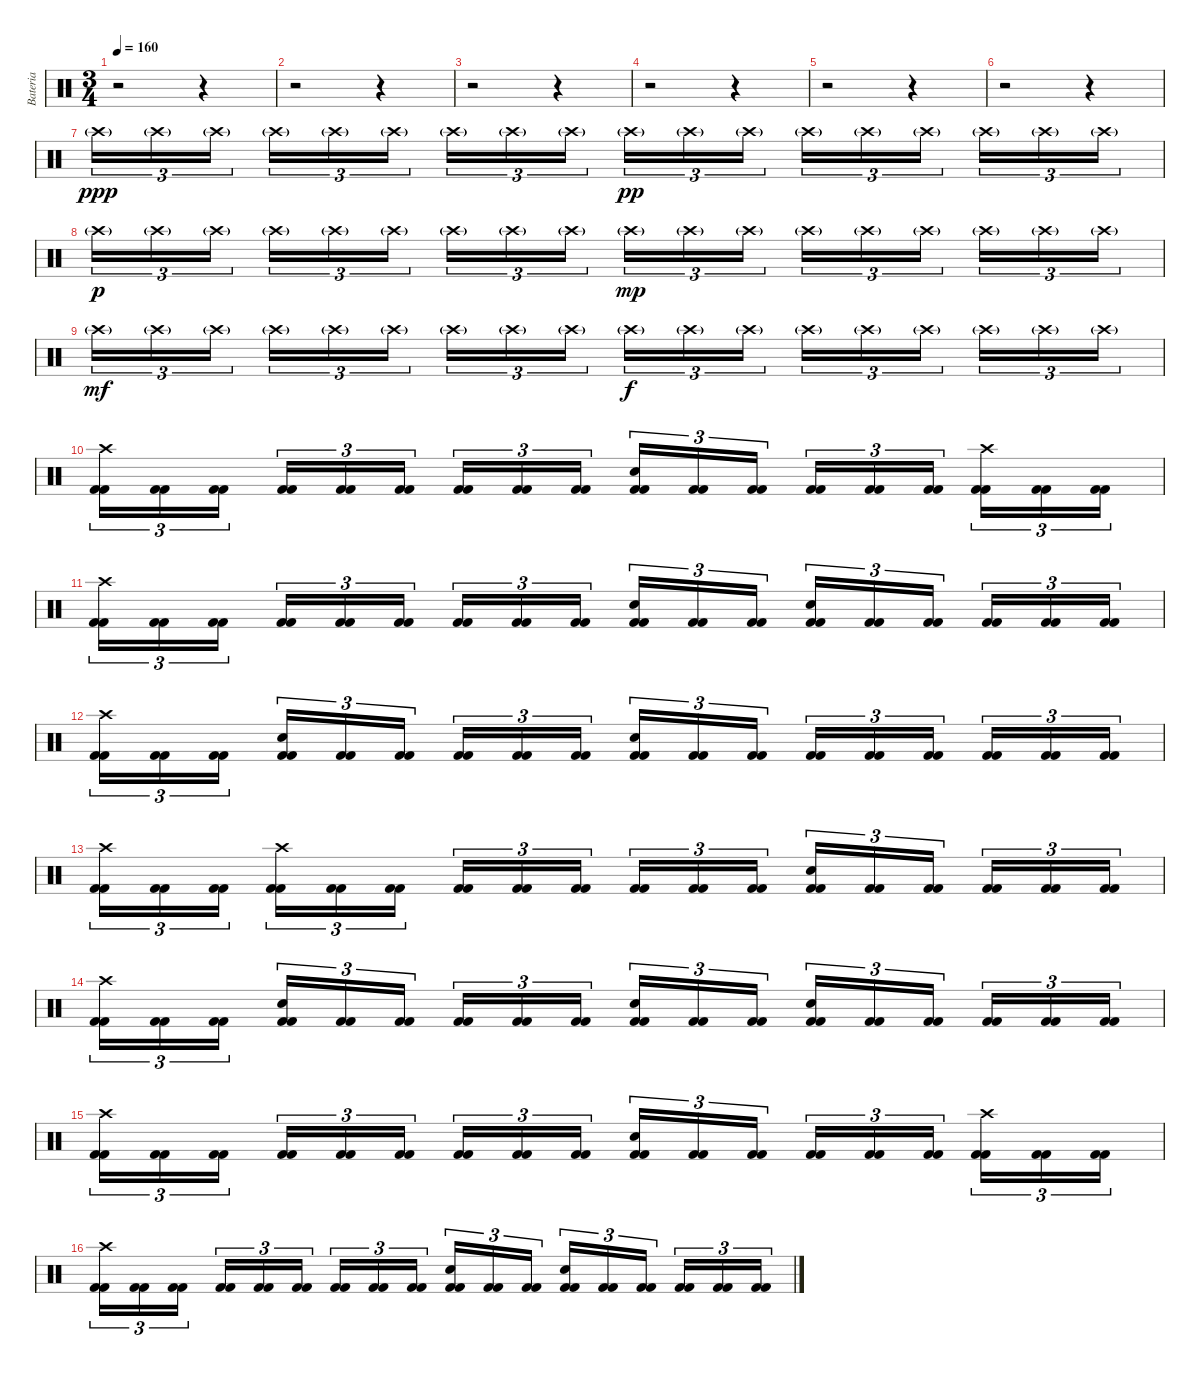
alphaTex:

\track ("Bateria" "Bateria") {instrument percussion}
\staff {score}
\articulation defaults
\ts (3 4)
\tempo 160
\clef neutral
\ks c
r.2{dy f} r.4 |
r.2 r.4 |
r.2 r.4 |
r.2 r.4 |
r.2 r.4 |
r.2 r.4 |
"Crash high (hit)"{g}.16{tu (3 2) dy ppp} "Crash high (hit)"{g}.16{tu (3 2)} "Crash high (hit)"{g}.16{tu (3 2)} "Crash high (hit)"{g}.16{tu (3 2)} "Crash high (hit)"{g}.16{tu (3 2)} "Crash high (hit)"{g}.16{tu (3 2)} "Crash high (hit)"{g}.16{tu (3 2)} "Crash high (hit)"{g}.16{tu (3 2)} "Crash high (hit)"{g}.16{tu (3 2)} "Crash high (hit)"{g}.16{tu (3 2) dy pp} "Crash high (hit)"{g}.16{tu (3 2)} "Crash high (hit)"{g}.16{tu (3 2)} "Crash high (hit)"{g}.16{tu (3 2)} "Crash high (hit)"{g}.16{tu (3 2)} "Crash high (hit)"{g}.16{tu (3 2)} "Crash high (hit)"{g}.16{tu (3 2)} "Crash high (hit)"{g}.16{tu (3 2)} "Crash high (hit)"{g}.16{tu (3 2)} |
"Crash high (hit)"{g}.16{tu (3 2) dy p} "Crash high (hit)"{g}.16{tu (3 2)} "Crash high (hit)"{g}.16{tu (3 2)} "Crash high (hit)"{g}.16{tu (3 2)} "Crash high (hit)"{g}.16{tu (3 2)} "Crash high (hit)"{g}.16{tu (3 2)} "Crash high (hit)"{g}.16{tu (3 2)} "Crash high (hit)"{g}.16{tu (3 2)} "Crash high (hit)"{g}.16{tu (3 2)} "Crash high (hit)"{g}.16{tu (3 2) dy mp} "Crash high (hit)"{g}.16{tu (3 2)} "Crash high (hit)"{g}.16{tu (3 2)} "Crash high (hit)"{g}.16{tu (3 2)} "Crash high (hit)"{g}.16{tu (3 2)} "Crash high (hit)"{g}.16{tu (3 2)} "Crash high (hit)"{g}.16{tu (3 2)} "Crash high (hit)"{g}.16{tu (3 2)} "Crash high (hit)"{g}.16{tu (3 2)} |
"Crash high (hit)"{g}.16{tu (3 2) dy mf} "Crash high (hit)"{g}.16{tu (3 2)} "Crash high (hit)"{g}.16{tu (3 2)} "Crash high (hit)"{g}.16{tu (3 2)} "Crash high (hit)"{g}.16{tu (3 2)} "Crash high (hit)"{g}.16{tu (3 2)} "Crash high (hit)"{g}.16{tu (3 2)} "Crash high (hit)"{g}.16{tu (3 2)} "Crash high (hit)"{g}.16{tu (3 2)} "Crash high (hit)"{g}.16{tu (3 2) dy f} "Crash high (hit)"{g}.16{tu (3 2)} "Crash high (hit)"{g}.16{tu (3 2)} "Crash high (hit)"{g}.16{tu (3 2)} "Crash high (hit)"{g}.16{tu (3 2)} "Crash high (hit)"{g}.16{tu (3 2)} "Crash high (hit)"{g}.16{tu (3 2)} "Crash high (hit)"{g}.16{tu (3 2)} "Crash high (hit)"{g}.16{tu (3 2)} |
("Kick (hit) 2" "Kick (hit) 2" "Crash high (hit)").16{tu (3 2)} ("Kick (hit) 2" "Kick (hit) 2").16{tu (3 2)} ("Kick (hit) 2" "Kick (hit) 2").16{tu (3 2)} ("Kick (hit) 2" "Kick (hit) 2").16{tu (3 2)} ("Kick (hit) 2" "Kick (hit) 2").16{tu (3 2)} ("Kick (hit) 2" "Kick (hit) 2").16{tu (3 2)} ("Kick (hit) 2" "Kick (hit) 2").16{tu (3 2)} ("Kick (hit) 2" "Kick (hit) 2").16{tu (3 2)} ("Kick (hit) 2" "Kick (hit) 2").16{tu (3 2)} ("Kick (hit) 2" "Kick (hit) 2" "Snare (hit) 2").16{tu (3 2)} ("Kick (hit) 2" "Kick (hit) 2").16{tu (3 2)} ("Kick (hit) 2" "Kick (hit) 2").16{tu (3 2)} ("Kick (hit) 2" "Kick (hit) 2").16{tu (3 2)} ("Kick (hit) 2" "Kick (hit) 2").16{tu (3 2)} ("Kick (hit) 2" "Kick (hit) 2").16{tu (3 2)} ("Kick (hit) 2" "Kick (hit) 2" "Crash high (hit)").16{tu (3 2)} ("Kick (hit) 2" "Kick (hit) 2").16{tu (3 2)} ("Kick (hit) 2" "Kick (hit) 2").16{tu (3 2)} |
("Kick (hit) 2" "Kick (hit) 2" "Crash high (hit)").16{tu (3 2)} ("Kick (hit) 2" "Kick (hit) 2").16{tu (3 2)} ("Kick (hit) 2" "Kick (hit) 2").16{tu (3 2)} ("Kick (hit) 2" "Kick (hit) 2").16{tu (3 2)} ("Kick (hit) 2" "Kick (hit) 2").16{tu (3 2)} ("Kick (hit) 2" "Kick (hit) 2").16{tu (3 2)} ("Kick (hit) 2" "Kick (hit) 2").16{tu (3 2)} ("Kick (hit) 2" "Kick (hit) 2").16{tu (3 2)} ("Kick (hit) 2" "Kick (hit) 2").16{tu (3 2)} ("Kick (hit) 2" "Kick (hit) 2" "Snare (hit) 2").16{tu (3 2)} ("Kick (hit) 2" "Kick (hit) 2").16{tu (3 2)} ("Kick (hit) 2" "Kick (hit) 2").16{tu (3 2)} ("Kick (hit) 2" "Kick (hit) 2" "Snare (hit) 2").16{tu (3 2)} ("Kick (hit) 2" "Kick (hit) 2").16{tu (3 2)} ("Kick (hit) 2" "Kick (hit) 2").16{tu (3 2)} ("Kick (hit) 2" "Kick (hit) 2").16{tu (3 2)} ("Kick (hit) 2" "Kick (hit) 2").16{tu (3 2)} ("Kick (hit) 2" "Kick (hit) 2").16{tu (3 2)} |
("Kick (hit) 2" "Kick (hit) 2" "Crash high (hit)").16{tu (3 2)} ("Kick (hit) 2" "Kick (hit) 2").16{tu (3 2)} ("Kick (hit) 2" "Kick (hit) 2").16{tu (3 2)} ("Kick (hit) 2" "Kick (hit) 2" "Snare (hit) 2").16{tu (3 2)} ("Kick (hit) 2" "Kick (hit) 2").16{tu (3 2)} ("Kick (hit) 2" "Kick (hit) 2").16{tu (3 2)} ("Kick (hit) 2" "Kick (hit) 2").16{tu (3 2)} ("Kick (hit) 2" "Kick (hit) 2").16{tu (3 2)} ("Kick (hit) 2" "Kick (hit) 2").16{tu (3 2)} ("Kick (hit) 2" "Kick (hit) 2" "Snare (hit) 2").16{tu (3 2)} ("Kick (hit) 2" "Kick (hit) 2").16{tu (3 2)} ("Kick (hit) 2" "Kick (hit) 2").16{tu (3 2)} ("Kick (hit) 2" "Kick (hit) 2").16{tu (3 2)} ("Kick (hit) 2" "Kick (hit) 2").16{tu (3 2)} ("Kick (hit) 2" "Kick (hit) 2").16{tu (3 2)} ("Kick (hit) 2" "Kick (hit) 2").16{tu (3 2)} ("Kick (hit) 2" "Kick (hit) 2").16{tu (3 2)} ("Kick (hit) 2" "Kick (hit) 2").16{tu (3 2)} |
("Kick (hit) 2" "Kick (hit) 2" "Crash high (hit)").16{tu (3 2)} ("Kick (hit) 2" "Kick (hit) 2").16{tu (3 2)} ("Kick (hit) 2" "Kick (hit) 2").16{tu (3 2)} ("Kick (hit) 2" "Kick (hit) 2" "Crash high (hit)").16{tu (3 2)} ("Kick (hit) 2" "Kick (hit) 2").16{tu (3 2)} ("Kick (hit) 2" "Kick (hit) 2").16{tu (3 2)} ("Kick (hit) 2" "Kick (hit) 2").16{tu (3 2)} ("Kick (hit) 2" "Kick (hit) 2").16{tu (3 2)} ("Kick (hit) 2" "Kick (hit) 2").16{tu (3 2)} ("Kick (hit) 2" "Kick (hit) 2").16{tu (3 2)} ("Kick (hit) 2" "Kick (hit) 2").16{tu (3 2)} ("Kick (hit) 2" "Kick (hit) 2").16{tu (3 2)} ("Kick (hit) 2" "Kick (hit) 2" "Snare (hit) 2").16{tu (3 2)} ("Kick (hit) 2" "Kick (hit) 2").16{tu (3 2)} ("Kick (hit) 2" "Kick (hit) 2").16{tu (3 2)} ("Kick (hit) 2" "Kick (hit) 2").16{tu (3 2)} ("Kick (hit) 2" "Kick (hit) 2").16{tu (3 2)} ("Kick (hit) 2" "Kick (hit) 2").16{tu (3 2)} |
("Kick (hit) 2" "Kick (hit) 2" "Crash high (hit)").16{tu (3 2)} ("Kick (hit) 2" "Kick (hit) 2").16{tu (3 2)} ("Kick (hit) 2" "Kick (hit) 2").16{tu (3 2)} ("Kick (hit) 2" "Kick (hit) 2" "Snare (hit) 2").16{tu (3 2)} ("Kick (hit) 2" "Kick (hit) 2").16{tu (3 2)} ("Kick (hit) 2" "Kick (hit) 2").16{tu (3 2)} ("Kick (hit) 2" "Kick (hit) 2").16{tu (3 2)} ("Kick (hit) 2" "Kick (hit) 2").16{tu (3 2)} ("Kick (hit) 2" "Kick (hit) 2").16{tu (3 2)} ("Kick (hit) 2" "Kick (hit) 2" "Snare (hit) 2").16{tu (3 2)} ("Kick (hit) 2" "Kick (hit) 2").16{tu (3 2)} ("Kick (hit) 2" "Kick (hit) 2").16{tu (3 2)} ("Kick (hit) 2" "Kick (hit) 2" "Snare (hit) 2").16{tu (3 2)} ("Kick (hit) 2" "Kick (hit) 2").16{tu (3 2)} ("Kick (hit) 2" "Kick (hit) 2").16{tu (3 2)} ("Kick (hit) 2" "Kick (hit) 2").16{tu (3 2)} ("Kick (hit) 2" "Kick (hit) 2").16{tu (3 2)} ("Kick (hit) 2" "Kick (hit) 2").16{tu (3 2)} |
("Kick (hit) 2" "Kick (hit) 2" "Crash high (hit)").16{tu (3 2)} ("Kick (hit) 2" "Kick (hit) 2").16{tu (3 2)} ("Kick (hit) 2" "Kick (hit) 2").16{tu (3 2)} ("Kick (hit) 2" "Kick (hit) 2").16{tu (3 2)} ("Kick (hit) 2" "Kick (hit) 2").16{tu (3 2)} ("Kick (hit) 2" "Kick (hit) 2").16{tu (3 2)} ("Kick (hit) 2" "Kick (hit) 2").16{tu (3 2)} ("Kick (hit) 2" "Kick (hit) 2").16{tu (3 2)} ("Kick (hit) 2" "Kick (hit) 2").16{tu (3 2)} ("Kick (hit) 2" "Kick (hit) 2" "Snare (hit) 2").16{tu (3 2)} ("Kick (hit) 2" "Kick (hit) 2").16{tu (3 2)} ("Kick (hit) 2" "Kick (hit) 2").16{tu (3 2)} ("Kick (hit) 2" "Kick (hit) 2").16{tu (3 2)} ("Kick (hit) 2" "Kick (hit) 2").16{tu (3 2)} ("Kick (hit) 2" "Kick (hit) 2").16{tu (3 2)} ("Kick (hit) 2" "Kick (hit) 2" "Crash high (hit)").16{tu (3 2)} ("Kick (hit) 2" "Kick (hit) 2").16{tu (3 2)} ("Kick (hit) 2" "Kick (hit) 2").16{tu (3 2)} |
("Kick (hit) 2" "Kick (hit) 2" "Crash high (hit)").16{tu (3 2)} ("Kick (hit) 2" "Kick (hit) 2").16{tu (3 2)} ("Kick (hit) 2" "Kick (hit) 2").16{tu (3 2)} ("Kick (hit) 2" "Kick (hit) 2").16{tu (3 2)} ("Kick (hit) 2" "Kick (hit) 2").16{tu (3 2)} ("Kick (hit) 2" "Kick (hit) 2").16{tu (3 2)} ("Kick (hit) 2" "Kick (hit) 2").16{tu (3 2)} ("Kick (hit) 2" "Kick (hit) 2").16{tu (3 2)} ("Kick (hit) 2" "Kick (hit) 2").16{tu (3 2)} ("Kick (hit) 2" "Kick (hit) 2" "Snare (hit) 2").16{tu (3 2)} ("Kick (hit) 2" "Kick (hit) 2").16{tu (3 2)} ("Kick (hit) 2" "Kick (hit) 2").16{tu (3 2)} ("Kick (hit) 2" "Kick (hit) 2" "Snare (hit) 2").16{tu (3 2)} ("Kick (hit) 2" "Kick (hit) 2").16{tu (3 2)} ("Kick (hit) 2" "Kick (hit) 2").16{tu (3 2)} ("Kick (hit) 2" "Kick (hit) 2").16{tu (3 2)} ("Kick (hit) 2" "Kick (hit) 2").16{tu (3 2)} ("Kick (hit) 2" "Kick (hit) 2").16{tu (3 2)}
